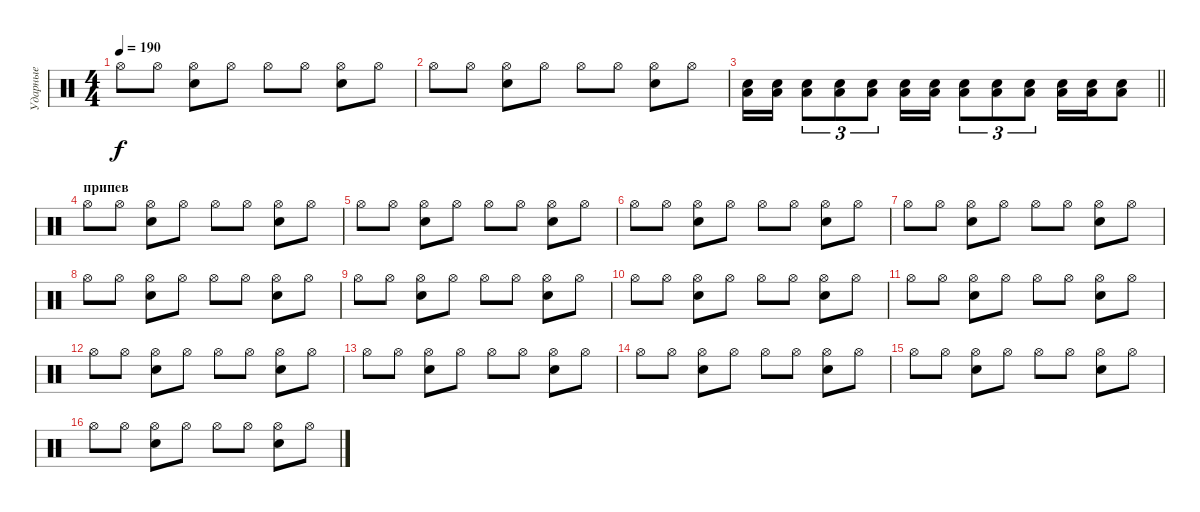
\track ("Ударные" "Ударные") {instrument percussion}
\staff {score}
\articulation defaults
\ts (4 4)
\tempo 190
\clef neutral
\ks c "Hi-Hat (open)".8{dy f} "Hi-Hat (open)".8
("Hi-Hat (open)" "Electric Snare (hit)").8 "Hi-Hat (open)".8 "Hi-Hat (open)".8 "Hi-Hat (open)".8 ("Hi-Hat (open)" "Electric Snare (hit)").8 "Hi-Hat (open)".8 |
"Hi-Hat (open)".8 "Hi-Hat (open)".8 ("Hi-Hat (open)" "Electric Snare (hit)").8 "Hi-Hat (open)".8 "Hi-Hat (open)".8 "Hi-Hat (open)".8 ("Hi-Hat (open)" "Electric Snare (hit)").8 "Hi-Hat (open)".8 |
\barLineRight lightlight
("Low Floor Tom (hit)" "Electric Snare (hit)").16 ("Low Floor Tom (hit)" "Electric Snare (hit)").16 ("Low Floor Tom (hit)" "Electric Snare (hit)").8{tu (3 2)} ("Low Floor Tom (hit)" "Electric Snare (hit)").8{tu (3 2)} ("Low Floor Tom (hit)" "Electric Snare (hit)").8{tu (3 2)} ("Low Floor Tom (hit)" "Electric Snare (hit)").16 ("Low Floor Tom (hit)" "Electric Snare (hit)").16 ("Low Floor Tom (hit)" "Electric Snare (hit)").8{tu (3 2)} ("Low Floor Tom (hit)" "Electric Snare (hit)").8{tu (3 2)} ("Low Floor Tom (hit)" "Electric Snare (hit)").8{tu (3 2)} ("Low Floor Tom (hit)" "Electric Snare (hit)").16 ("Low Floor Tom (hit)" "Electric Snare (hit)").16 ("Low Floor Tom (hit)" "Electric Snare (hit)").8 |
\section ("" "припев")
"Hi-Hat (open)".8 "Hi-Hat (open)".8 ("Hi-Hat (open)" "Electric Snare (hit)").8 "Hi-Hat (open)".8 "Hi-Hat (open)".8 "Hi-Hat (open)".8 ("Hi-Hat (open)" "Electric Snare (hit)").8 "Hi-Hat (open)".8 |
"Hi-Hat (open)".8 "Hi-Hat (open)".8 ("Hi-Hat (open)" "Electric Snare (hit)").8 "Hi-Hat (open)".8 "Hi-Hat (open)".8 "Hi-Hat (open)".8 ("Hi-Hat (open)" "Electric Snare (hit)").8 "Hi-Hat (open)".8 |
"Hi-Hat (open)".8 "Hi-Hat (open)".8 ("Hi-Hat (open)" "Electric Snare (hit)").8 "Hi-Hat (open)".8 "Hi-Hat (open)".8 "Hi-Hat (open)".8 ("Hi-Hat (open)" "Electric Snare (hit)").8 "Hi-Hat (open)".8 |
"Hi-Hat (open)".8 "Hi-Hat (open)".8 ("Hi-Hat (open)" "Electric Snare (hit)").8 "Hi-Hat (open)".8 "Hi-Hat (open)".8 "Hi-Hat (open)".8 ("Hi-Hat (open)" "Electric Snare (hit)").8 "Hi-Hat (open)".8 |
"Hi-Hat (open)".8 "Hi-Hat (open)".8 ("Hi-Hat (open)" "Electric Snare (hit)").8 "Hi-Hat (open)".8 "Hi-Hat (open)".8 "Hi-Hat (open)".8 ("Hi-Hat (open)" "Electric Snare (hit)").8 "Hi-Hat (open)".8 |
"Hi-Hat (open)".8 "Hi-Hat (open)".8 ("Hi-Hat (open)" "Electric Snare (hit)").8 "Hi-Hat (open)".8 "Hi-Hat (open)".8 "Hi-Hat (open)".8 ("Hi-Hat (open)" "Electric Snare (hit)").8 "Hi-Hat (open)".8 |
"Hi-Hat (open)".8 "Hi-Hat (open)".8 ("Hi-Hat (open)" "Electric Snare (hit)").8 "Hi-Hat (open)".8 "Hi-Hat (open)".8 "Hi-Hat (open)".8 ("Hi-Hat (open)" "Electric Snare (hit)").8 "Hi-Hat (open)".8 |
"Hi-Hat (open)".8 "Hi-Hat (open)".8 ("Hi-Hat (open)" "Electric Snare (hit)").8 "Hi-Hat (open)".8 "Hi-Hat (open)".8 "Hi-Hat (open)".8 ("Hi-Hat (open)" "Electric Snare (hit)").8 "Hi-Hat (open)".8 |
"Hi-Hat (open)".8 "Hi-Hat (open)".8 ("Hi-Hat (open)" "Electric Snare (hit)").8 "Hi-Hat (open)".8 "Hi-Hat (open)".8 "Hi-Hat (open)".8 ("Hi-Hat (open)" "Electric Snare (hit)").8 "Hi-Hat (open)".8 |
"Hi-Hat (open)".8 "Hi-Hat (open)".8 ("Hi-Hat (open)" "Electric Snare (hit)").8 "Hi-Hat (open)".8 "Hi-Hat (open)".8 "Hi-Hat (open)".8 ("Hi-Hat (open)" "Electric Snare (hit)").8 "Hi-Hat (open)".8 |
"Hi-Hat (open)".8 "Hi-Hat (open)".8 ("Hi-Hat (open)" "Electric Snare (hit)").8 "Hi-Hat (open)".8 "Hi-Hat (open)".8 "Hi-Hat (open)".8 ("Hi-Hat (open)" "Electric Snare (hit)").8 "Hi-Hat (open)".8 |
"Hi-Hat (open)".8 "Hi-Hat (open)".8 ("Hi-Hat (open)" "Electric Snare (hit)").8 "Hi-Hat (open)".8 "Hi-Hat (open)".8 "Hi-Hat (open)".8 ("Hi-Hat (open)" "Electric Snare (hit)").8 "Hi-Hat (open)".8 |
"Hi-Hat (open)".8 "Hi-Hat (open)".8 ("Hi-Hat (open)" "Electric Snare (hit)").8 "Hi-Hat (open)".8 "Hi-Hat (open)".8 "Hi-Hat (open)".8 ("Hi-Hat (open)" "Electric Snare (hit)").8 "Hi-Hat (open)".8
